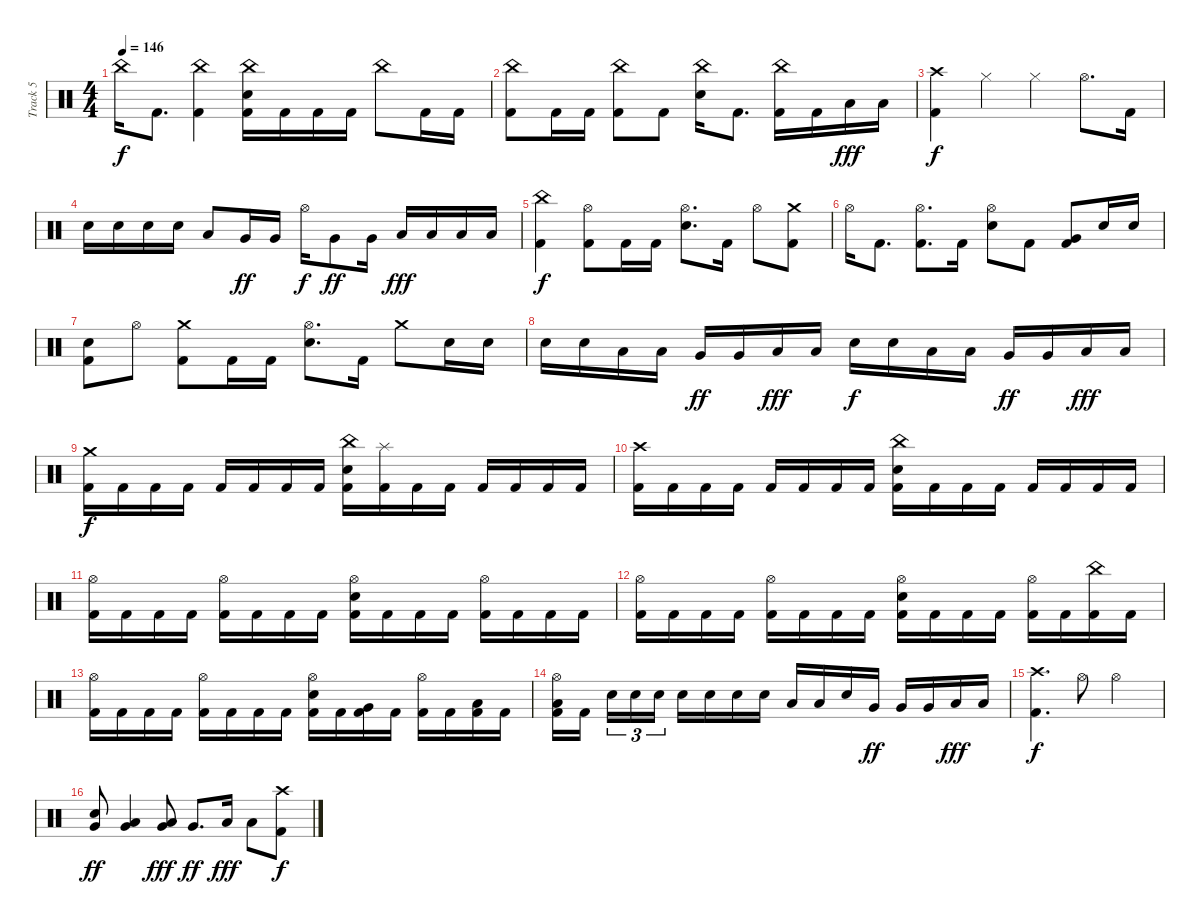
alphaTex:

\track ("Track 5" "Track 5") {instrument percussion}
\staff {score}
\articulation defaults
\ts (4 4)
\tempo 146
\clef neutral
\ks c "China (hit)".16{dy f} "Kick (hit) 2".8{d}
("China (hit)" "Kick (hit) 2").4 ("China (hit)" "Electric Snare (hit)" "Kick (hit) 2").16 "Kick (hit) 2".16 "Kick (hit) 2".16 "Kick (hit) 2".16 "China (hit)".8 "Kick (hit) 2".16 "Kick (hit) 2".16 |
("China (hit)" "Kick (hit) 2").8 "Kick (hit) 2".16 "Kick (hit) 2".16 ("China (hit)" "Kick (hit) 2").8 "Kick (hit) 2".8 ("China (hit)" "Electric Snare (hit)").16 "Kick (hit) 2".8{d} ("China (hit)" "Kick (hit) 2").16 "Kick (hit) 2".16 "Low Floor Tom (hit)".16{dy fff} "Low Floor Tom (hit)".16 |
("Crash high (hit)" "Kick (hit) 2").4{dy f} "Hi-Hat (closed)".4 "Hi-Hat (closed)".4 "Hi-Hat (open)".8{d} "Kick (hit) 2".16 |
"Electric Snare (hit)".16 "Electric Snare (hit)".16 "Electric Snare (hit)".16 "Electric Snare (hit)".16 "Low Tom (hit)".8 "Very Low Tom (hit)".16{dy ff} "Very Low Tom (hit)".16 "Hi-Hat (open)".16{dy f} "Very Low Tom (hit)".8{dy ff} "Very Low Tom (hit)".16 "Low Floor Tom (hit)".16{dy fff} "Low Floor Tom (hit)".16 "Low Floor Tom (hit)".16 "Low Floor Tom (hit)".16 |
("China (hit)" "Kick (hit) 2").4{dy f} ("Hi-Hat (open)" "Kick (hit) 2").8 "Kick (hit) 2".16 "Kick (hit) 2".16 ("Electric Snare (hit)" "Hi-Hat (open)").8{d} "Kick (hit) 2".16 "Hi-Hat (open)".8 ("Crash medium (hit)" "Kick (hit) 2").8 |
"Hi-Hat (open)".16 "Kick (hit) 2".8{d} ("Hi-Hat (open)" "Kick (hit) 2").8{d} "Kick (hit) 2".16 ("Electric Snare (hit)" "Hi-Hat (open)").8 "Kick (hit) 2".8 ("Very Low Tom (hit)" "Kick (hit) 2").8 "Electric Snare (hit)".16 "Electric Snare (hit)".16 |
("Electric Snare (hit)" "Kick (hit) 2").8 "Hi-Hat (open)".8 ("Crash medium (hit)" "Kick (hit) 2").8 "Kick (hit) 2".16 "Kick (hit) 2".16 ("Electric Snare (hit)" "Hi-Hat (open)").8{d} "Kick (hit) 2".16 "Crash medium (hit)".8 "Electric Snare (hit)".16 "Electric Snare (hit)".16 |
"Electric Snare (hit)".16 "Electric Snare (hit)".16 "Low Tom (hit)".16 "Low Tom (hit)".16 "Very Low Tom (hit)".16{dy ff} "Very Low Tom (hit)".16 "Low Floor Tom (hit)".16{dy fff} "Low Floor Tom (hit)".16 "Electric Snare (hit)".16{dy f} "Electric Snare (hit)".16 "Low Tom (hit)".16 "Low Tom (hit)".16 "Very Low Tom (hit)".16{dy ff} "Very Low Tom (hit)".16 "Low Floor Tom (hit)".16{dy fff} "Low Floor Tom (hit)".16 |
("Crash medium (hit)" "Kick (hit) 2").16{dy f} "Kick (hit) 2".16 "Kick (hit) 2".16 "Kick (hit) 2".16 "Kick (hit) 2".16 "Kick (hit) 2".16 "Kick (hit) 2".16 "Kick (hit) 2".16 ("China (hit)" "Electric Snare (hit)" "Kick (hit) 2").16 ("Splash (hit)" "Kick (hit) 2").16 "Kick (hit) 2".16 "Kick (hit) 2".16 "Kick (hit) 2".16 "Kick (hit) 2".16 "Kick (hit) 2".16 "Kick (hit) 2".16 |
("Crash high (hit)" "Kick (hit) 2").16 "Kick (hit) 2".16 "Kick (hit) 2".16 "Kick (hit) 2".16 "Kick (hit) 2".16 "Kick (hit) 2".16 "Kick (hit) 2".16 "Kick (hit) 2".16 ("China (hit)" "Electric Snare (hit)" "Kick (hit) 2").16 "Kick (hit) 2".16 "Kick (hit) 2".16 "Kick (hit) 2".16 "Kick (hit) 2".16 "Kick (hit) 2".16 "Kick (hit) 2".16 "Kick (hit) 2".16 |
("Hi-Hat (open)" "Kick (hit) 2").16 "Kick (hit) 2".16 "Kick (hit) 2".16 "Kick (hit) 2".16 ("Hi-Hat (open)" "Kick (hit) 2").16 "Kick (hit) 2".16 "Kick (hit) 2".16 "Kick (hit) 2".16 ("Electric Snare (hit)" "Hi-Hat (open)" "Kick (hit) 2").16 "Kick (hit) 2".16 "Kick (hit) 2".16 "Kick (hit) 2".16 ("Hi-Hat (open)" "Kick (hit) 2").16 "Kick (hit) 2".16 "Kick (hit) 2".16 "Kick (hit) 2".16 |
("Hi-Hat (open)" "Kick (hit) 2").16 "Kick (hit) 2".16 "Kick (hit) 2".16 "Kick (hit) 2".16 ("Hi-Hat (open)" "Kick (hit) 2").16 "Kick (hit) 2".16 "Kick (hit) 2".16 "Kick (hit) 2".16 ("Electric Snare (hit)" "Hi-Hat (open)" "Kick (hit) 2").16 "Kick (hit) 2".16 "Kick (hit) 2".16 "Kick (hit) 2".16 ("Hi-Hat (open)" "Kick (hit) 2").16 "Kick (hit) 2".16 ("China (hit)" "Kick (hit) 2").16 "Kick (hit) 2".16 |
("Hi-Hat (open)" "Kick (hit) 2").16 "Kick (hit) 2".16 "Kick (hit) 2".16 "Kick (hit) 2".16 ("Hi-Hat (open)" "Kick (hit) 2").16 "Kick (hit) 2".16 "Kick (hit) 2".16 "Kick (hit) 2".16 ("Electric Snare (hit)" "Hi-Hat (open)" "Kick (hit) 2").16 "Kick (hit) 2".16 ("Very Low Tom (hit)" "Kick (hit) 2").16 "Kick (hit) 2".16 ("Hi-Hat (open)" "Kick (hit) 2").16 "Kick (hit) 2".16 ("Low Floor Tom (hit)" "Kick (hit) 2").16 "Kick (hit) 2".16 |
("Hi-Hat (open)" "Low Floor Tom (hit)" "Kick (hit) 2").16 "Kick (hit) 2".16 "Electric Snare (hit)".16{tu (3 2)} "Electric Snare (hit)".16{tu (3 2)} "Electric Snare (hit)".16{tu (3 2)} "Electric Snare (hit)".16 "Electric Snare (hit)".16 "Electric Snare (hit)".16 "Electric Snare (hit)".16 "Low Tom (hit)".16 "Low Tom (hit)".16 "Electric Snare (hit)".16 "Very Low Tom (hit)".16{dy ff} "Very Low Tom (hit)".16 "Very Low Tom (hit)".16 "Low Floor Tom (hit)".16{dy fff} "Low Floor Tom (hit)".16 |
("Crash high (hit)" "Kick (hit) 2").4{d dy f} "Hi-Hat (open)".8 "Hi-Hat (open)".2 |
("Electric Snare (hit)" "Very Low Tom (hit)").8{dy ff} ("Low Tom (hit)" "Very Low Tom (hit)").4 ("Very Low Tom (hit)" "Low Floor Tom (hit)").8{dy fff} "Very Low Tom (hit)".8{d dy ff} "Low Floor Tom (hit)".16{dy fff} "Low Floor Tom (hit)".8 ("Crash high (hit)" "Kick (hit) 2").8{dy f}
